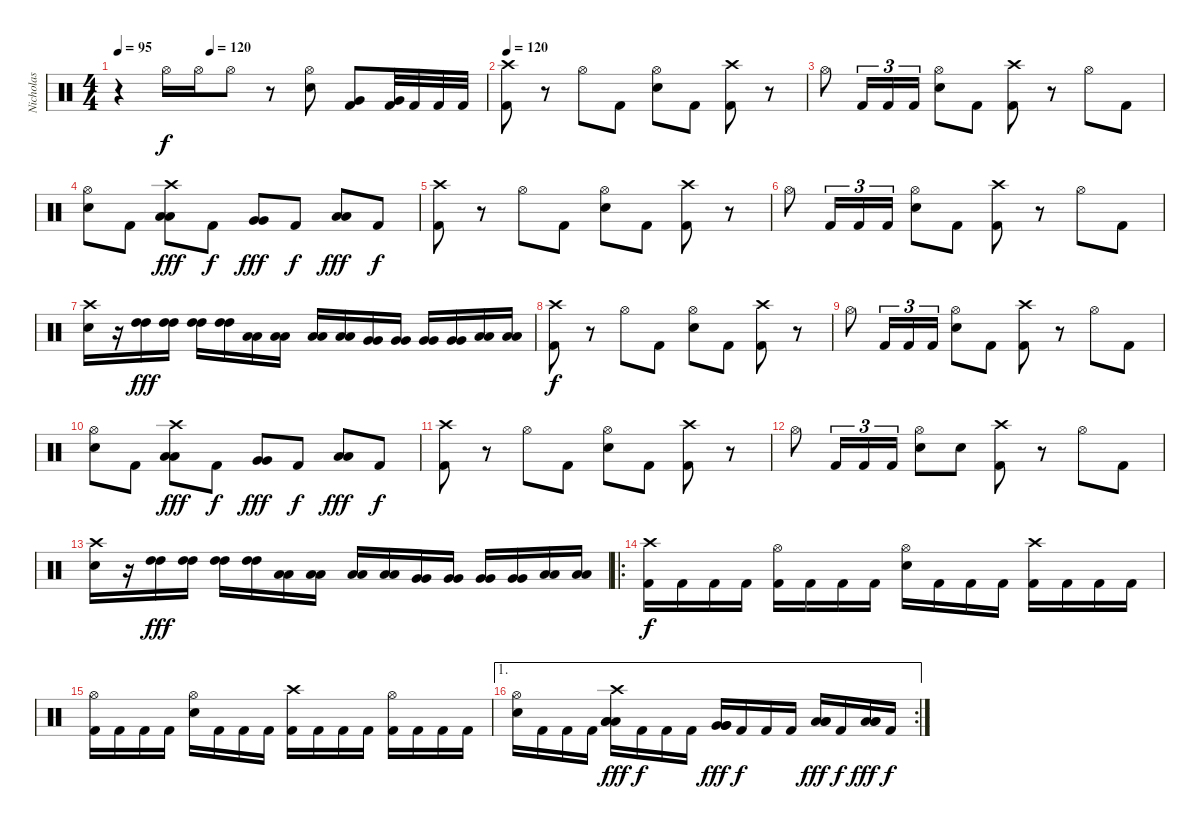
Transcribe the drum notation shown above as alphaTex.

\track ("Nicholas" "Nicholas") {instrument percussion}
\staff {score}
\articulation defaults
\ts (4 4)
\tempo 95
\tempo (120 0.25)
\clef neutral
\ks c
r.4{dy f} "Hi-Hat (open)".16 "Hi-Hat (open)".16 "Hi-Hat (open)".8 r.8 ("Electric Snare (hit)" "Hi-Hat (open)").8 ("Kick (hit) 2" "Very Low Tom (hit)").8 ("Kick (hit) 2" "Very Low Tom (hit)").32 "Kick (hit) 2".32 "Kick (hit) 2".32 "Kick (hit) 2".32 |
\tempo 120
("Kick (hit) 2" "Crash high (hit)").8 r.8 "Hi-Hat (open)".8 "Kick (hit) 2".8 ("Electric Snare (hit)" "Hi-Hat (open)").8 "Kick (hit) 2".8 ("Kick (hit) 2" "Crash high (hit)").8 r.8 |
"Hi-Hat (open)".8 "Kick (hit) 2".16{tu (3 2)} "Kick (hit) 2".16{tu (3 2)} "Kick (hit) 2".16{tu (3 2)} ("Electric Snare (hit)" "Hi-Hat (open)").8 "Kick (hit) 2".8 ("Kick (hit) 2" "Crash high (hit)").8 r.8 "Hi-Hat (open)".8 "Kick (hit) 2".8 |
("Electric Snare (hit)" "Hi-Hat (open)").8 "Kick (hit) 2".8 ("Low Tom (hit)" "Low Tom (hit)" "Crash high (hit)").8{dy fff} "Kick (hit) 2".8{dy f} ("Very Low Tom (hit)" "Very Low Tom (hit)").8{dy fff} "Kick (hit) 2".8{dy f} ("Low Floor Tom (hit)" "Low Floor Tom (hit)").8{dy fff} "Kick (hit) 2".8{dy f} |
("Kick (hit) 2" "Crash high (hit)").8 r.8 "Hi-Hat (open)".8 "Kick (hit) 2".8 ("Electric Snare (hit)" "Hi-Hat (open)").8 "Kick (hit) 2".8 ("Kick (hit) 2" "Crash high (hit)").8 r.8 |
"Hi-Hat (open)".8 "Kick (hit) 2".16{tu (3 2)} "Kick (hit) 2".16{tu (3 2)} "Kick (hit) 2".16{tu (3 2)} ("Electric Snare (hit)" "Hi-Hat (open)").8 "Kick (hit) 2".8 ("Kick (hit) 2" "Crash high (hit)").8 r.8 "Hi-Hat (open)".8 "Kick (hit) 2".8 |
("Electric Snare (hit)" "Crash high (hit)").16 r.16 ("High Tom (hit)" "High Tom (hit)").16{dy fff} ("High Tom (hit)" "High Tom (hit)").16 ("High Tom (hit)" "High Tom (hit)").16 ("High Tom (hit)" "High Tom (hit)").16 ("Low Tom (hit)" "Low Tom (hit)").16 ("Low Tom (hit)" "Low Tom (hit)").16 ("Low Tom (hit)" "Low Tom (hit)").16 ("Low Tom (hit)" "Low Tom (hit)").16 ("Very Low Tom (hit)" "Very Low Tom (hit)").16 ("Very Low Tom (hit)" "Very Low Tom (hit)").16 ("Very Low Tom (hit)" "Very Low Tom (hit)").16 ("Very Low Tom (hit)" "Very Low Tom (hit)").16 ("Low Floor Tom (hit)" "Low Floor Tom (hit)").16 ("Low Floor Tom (hit)" "Low Floor Tom (hit)").16 |
("Kick (hit) 2" "Crash high (hit)").8{dy f} r.8 "Hi-Hat (open)".8 "Kick (hit) 2".8 ("Electric Snare (hit)" "Hi-Hat (open)").8 "Kick (hit) 2".8 ("Kick (hit) 2" "Crash high (hit)").8 r.8 |
"Hi-Hat (open)".8 "Kick (hit) 2".16{tu (3 2)} "Kick (hit) 2".16{tu (3 2)} "Kick (hit) 2".16{tu (3 2)} ("Electric Snare (hit)" "Hi-Hat (open)").8 "Kick (hit) 2".8 ("Kick (hit) 2" "Crash high (hit)").8 r.8 "Hi-Hat (open)".8 "Kick (hit) 2".8 |
("Electric Snare (hit)" "Hi-Hat (open)").8 "Kick (hit) 2".8 ("Low Tom (hit)" "Low Tom (hit)" "Crash high (hit)").8{dy fff} "Kick (hit) 2".8{dy f} ("Very Low Tom (hit)" "Very Low Tom (hit)").8{dy fff} "Kick (hit) 2".8{dy f} ("Low Floor Tom (hit)" "Low Floor Tom (hit)").8{dy fff} "Kick (hit) 2".8{dy f} |
("Kick (hit) 2" "Crash high (hit)").8 r.8 "Hi-Hat (open)".8 "Kick (hit) 2".8 ("Electric Snare (hit)" "Hi-Hat (open)").8 "Kick (hit) 2".8 ("Kick (hit) 2" "Crash high (hit)").8 r.8 |
"Hi-Hat (open)".8 "Kick (hit) 2".16{tu (3 2)} "Kick (hit) 2".16{tu (3 2)} "Kick (hit) 2".16{tu (3 2)} ("Electric Snare (hit)" "Hi-Hat (open)").8 "Electric Snare (hit)".8 ("Kick (hit) 2" "Crash high (hit)").8 r.8 "Hi-Hat (open)".8 "Kick (hit) 2".8 |
("Electric Snare (hit)" "Crash high (hit)").16 r.16 ("High Tom (hit)" "High Tom (hit)").16{dy fff} ("High Tom (hit)" "High Tom (hit)").16 ("High Tom (hit)" "High Tom (hit)").16 ("High Tom (hit)" "High Tom (hit)").16 ("Low Tom (hit)" "Low Tom (hit)").16 ("Low Tom (hit)" "Low Tom (hit)").16 ("Low Tom (hit)" "Low Tom (hit)").16 ("Low Tom (hit)" "Low Tom (hit)").16 ("Very Low Tom (hit)" "Very Low Tom (hit)").16 ("Very Low Tom (hit)" "Very Low Tom (hit)").16 ("Very Low Tom (hit)" "Very Low Tom (hit)").16 ("Very Low Tom (hit)" "Very Low Tom (hit)").16 ("Low Floor Tom (hit)" "Low Floor Tom (hit)").16 ("Low Floor Tom (hit)" "Low Floor Tom (hit)").16 |
\ro
("Kick (hit) 2" "Crash high (hit)").16{dy f} "Kick (hit) 2".16 "Kick (hit) 2".16 "Kick (hit) 2".16 ("Kick (hit) 2" "Hi-Hat (open)").16 "Kick (hit) 2".16 "Kick (hit) 2".16 "Kick (hit) 2".16 ("Electric Snare (hit)" "Hi-Hat (open)").16 "Kick (hit) 2".16 "Kick (hit) 2".16 "Kick (hit) 2".16 ("Kick (hit) 2" "Crash high (hit)").16 "Kick (hit) 2".16 "Kick (hit) 2".16 "Kick (hit) 2".16 |
("Kick (hit) 2" "Hi-Hat (open)").16 "Kick (hit) 2".16 "Kick (hit) 2".16 "Kick (hit) 2".16 ("Electric Snare (hit)" "Hi-Hat (open)").16 "Kick (hit) 2".16 "Kick (hit) 2".16 "Kick (hit) 2".16 ("Kick (hit) 2" "Crash high (hit)").16 "Kick (hit) 2".16 "Kick (hit) 2".16 "Kick (hit) 2".16 ("Kick (hit) 2" "Hi-Hat (open)").16 "Kick (hit) 2".16 "Kick (hit) 2".16 "Kick (hit) 2".16 |
\ae 1
\rc 2
("Electric Snare (hit)" "Hi-Hat (open)").16 "Kick (hit) 2".16 "Kick (hit) 2".16 "Kick (hit) 2".16 ("Low Tom (hit)" "Low Tom (hit)" "Low Tom (hit)" "Crash high (hit)").16{dy fff} "Kick (hit) 2".16{dy f} "Kick (hit) 2".16 "Kick (hit) 2".16 ("Very Low Tom (hit)" "Very Low Tom (hit)" "Very Low Tom (hit)").16{dy fff} "Kick (hit) 2".16{dy f} "Kick (hit) 2".16 "Kick (hit) 2".16 ("Low Floor Tom (hit)" "Low Floor Tom (hit)" "Low Floor Tom (hit)").16{dy fff} "Kick (hit) 2".16{dy f} ("Low Floor Tom (hit)" "Low Floor Tom (hit)" "Low Floor Tom (hit)").16{dy fff} "Kick (hit) 2".16{dy f}
